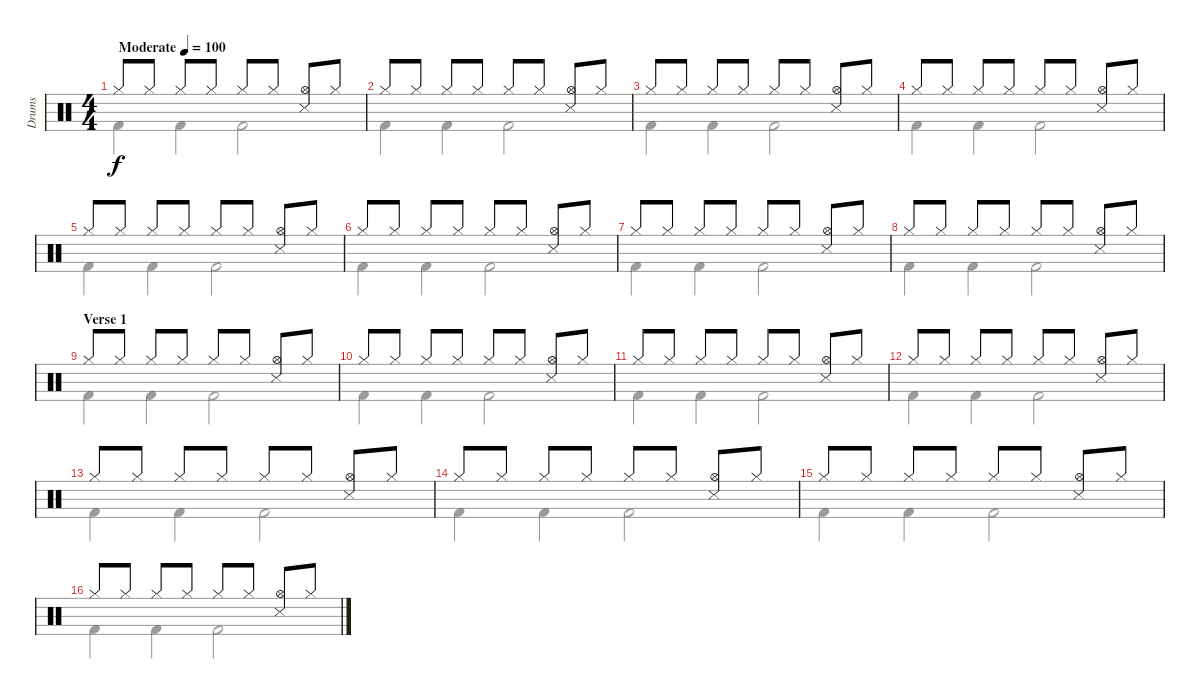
\track ("Drums" "Drums") {instrument percussion}
\staff {score}
\articulation defaults
\voice
\ts (4 4)
\tempo (100 "Moderate")
\clef neutral
\ks c "Hi-Hat (closed)".8{dy f} "Hi-Hat (closed)".8 "Hi-Hat (closed)".8 "Hi-Hat (closed)".8 "Hi-Hat (closed)".8 "Hi-Hat (closed)".8
("Hi-Hat (open)" "Snare (side stick) 3").8 "Hi-Hat (closed)".8 |
"Hi-Hat (closed)".8 "Hi-Hat (closed)".8 "Hi-Hat (closed)".8 "Hi-Hat (closed)".8 "Hi-Hat (closed)".8 "Hi-Hat (closed)".8 ("Hi-Hat (open)" "Snare (side stick) 3").8 "Hi-Hat (closed)".8 |
"Hi-Hat (closed)".8 "Hi-Hat (closed)".8 "Hi-Hat (closed)".8 "Hi-Hat (closed)".8 "Hi-Hat (closed)".8 "Hi-Hat (closed)".8 ("Hi-Hat (open)" "Snare (side stick) 3").8 "Hi-Hat (closed)".8 |
"Hi-Hat (closed)".8 "Hi-Hat (closed)".8 "Hi-Hat (closed)".8 "Hi-Hat (closed)".8 "Hi-Hat (closed)".8 "Hi-Hat (closed)".8 ("Hi-Hat (open)" "Snare (side stick) 3").8 "Hi-Hat (closed)".8 |
"Hi-Hat (closed)".8 "Hi-Hat (closed)".8 "Hi-Hat (closed)".8 "Hi-Hat (closed)".8 "Hi-Hat (closed)".8 "Hi-Hat (closed)".8 ("Hi-Hat (open)" "Snare (side stick) 3").8 "Hi-Hat (closed)".8 |
"Hi-Hat (closed)".8 "Hi-Hat (closed)".8 "Hi-Hat (closed)".8 "Hi-Hat (closed)".8 "Hi-Hat (closed)".8 "Hi-Hat (closed)".8 ("Hi-Hat (open)" "Snare (side stick) 3").8 "Hi-Hat (closed)".8 |
"Hi-Hat (closed)".8 "Hi-Hat (closed)".8 "Hi-Hat (closed)".8 "Hi-Hat (closed)".8 "Hi-Hat (closed)".8 "Hi-Hat (closed)".8 ("Hi-Hat (open)" "Snare (side stick) 3").8 "Hi-Hat (closed)".8 |
"Hi-Hat (closed)".8 "Hi-Hat (closed)".8 "Hi-Hat (closed)".8 "Hi-Hat (closed)".8 "Hi-Hat (closed)".8 "Hi-Hat (closed)".8 ("Hi-Hat (open)" "Snare (side stick) 3").8 "Hi-Hat (closed)".8 |
\section ("" "Verse 1")
"Hi-Hat (closed)".8 "Hi-Hat (closed)".8 "Hi-Hat (closed)".8 "Hi-Hat (closed)".8 "Hi-Hat (closed)".8 "Hi-Hat (closed)".8 ("Hi-Hat (open)" "Snare (side stick) 3").8 "Hi-Hat (closed)".8 |
"Hi-Hat (closed)".8 "Hi-Hat (closed)".8 "Hi-Hat (closed)".8 "Hi-Hat (closed)".8 "Hi-Hat (closed)".8 "Hi-Hat (closed)".8 ("Hi-Hat (open)" "Snare (side stick) 3").8 "Hi-Hat (closed)".8 |
"Hi-Hat (closed)".8 "Hi-Hat (closed)".8 "Hi-Hat (closed)".8 "Hi-Hat (closed)".8 "Hi-Hat (closed)".8 "Hi-Hat (closed)".8 ("Hi-Hat (open)" "Snare (side stick) 3").8 "Hi-Hat (closed)".8 |
"Hi-Hat (closed)".8 "Hi-Hat (closed)".8 "Hi-Hat (closed)".8 "Hi-Hat (closed)".8 "Hi-Hat (closed)".8 "Hi-Hat (closed)".8 ("Hi-Hat (open)" "Snare (side stick) 3").8 "Hi-Hat (closed)".8 |
"Hi-Hat (closed)".8 "Hi-Hat (closed)".8 "Hi-Hat (closed)".8 "Hi-Hat (closed)".8 "Hi-Hat (closed)".8 "Hi-Hat (closed)".8 ("Hi-Hat (open)" "Snare (side stick) 3").8 "Hi-Hat (closed)".8 |
"Hi-Hat (closed)".8 "Hi-Hat (closed)".8 "Hi-Hat (closed)".8 "Hi-Hat (closed)".8 "Hi-Hat (closed)".8 "Hi-Hat (closed)".8 ("Hi-Hat (open)" "Snare (side stick) 3").8 "Hi-Hat (closed)".8 |
"Hi-Hat (closed)".8 "Hi-Hat (closed)".8 "Hi-Hat (closed)".8 "Hi-Hat (closed)".8 "Hi-Hat (closed)".8 "Hi-Hat (closed)".8 ("Hi-Hat (open)" "Snare (side stick) 3").8 "Hi-Hat (closed)".8 |
"Hi-Hat (closed)".8 "Hi-Hat (closed)".8 "Hi-Hat (closed)".8 "Hi-Hat (closed)".8 "Hi-Hat (closed)".8 "Hi-Hat (closed)".8 ("Hi-Hat (open)" "Snare (side stick) 3").8 "Hi-Hat (closed)".8
\voice
\clef neutral
\ottava regular
\simile none
\ks c "Kick (hit) 2".4{dy f} "Kick (hit) 2".4 "Kick (hit) 2".2
|
"Kick (hit) 2".4 "Kick (hit) 2".4 "Kick (hit) 2".2 |
"Kick (hit) 2".4 "Kick (hit) 2".4 "Kick (hit) 2".2 |
"Kick (hit) 2".4 "Kick (hit) 2".4 "Kick (hit) 2".2 |
"Kick (hit) 2".4 "Kick (hit) 2".4 "Kick (hit) 2".2 |
"Kick (hit) 2".4 "Kick (hit) 2".4 "Kick (hit) 2".2 |
"Kick (hit) 2".4 "Kick (hit) 2".4 "Kick (hit) 2".2 |
"Kick (hit) 2".4 "Kick (hit) 2".4 "Kick (hit) 2".2 |
"Kick (hit) 2".4 "Kick (hit) 2".4 "Kick (hit) 2".2 |
"Kick (hit) 2".4 "Kick (hit) 2".4 "Kick (hit) 2".2 |
"Kick (hit) 2".4 "Kick (hit) 2".4 "Kick (hit) 2".2 |
"Kick (hit) 2".4 "Kick (hit) 2".4 "Kick (hit) 2".2 |
"Kick (hit) 2".4 "Kick (hit) 2".4 "Kick (hit) 2".2 |
"Kick (hit) 2".4 "Kick (hit) 2".4 "Kick (hit) 2".2 |
"Kick (hit) 2".4 "Kick (hit) 2".4 "Kick (hit) 2".2 |
"Kick (hit) 2".4 "Kick (hit) 2".4 "Kick (hit) 2".2
